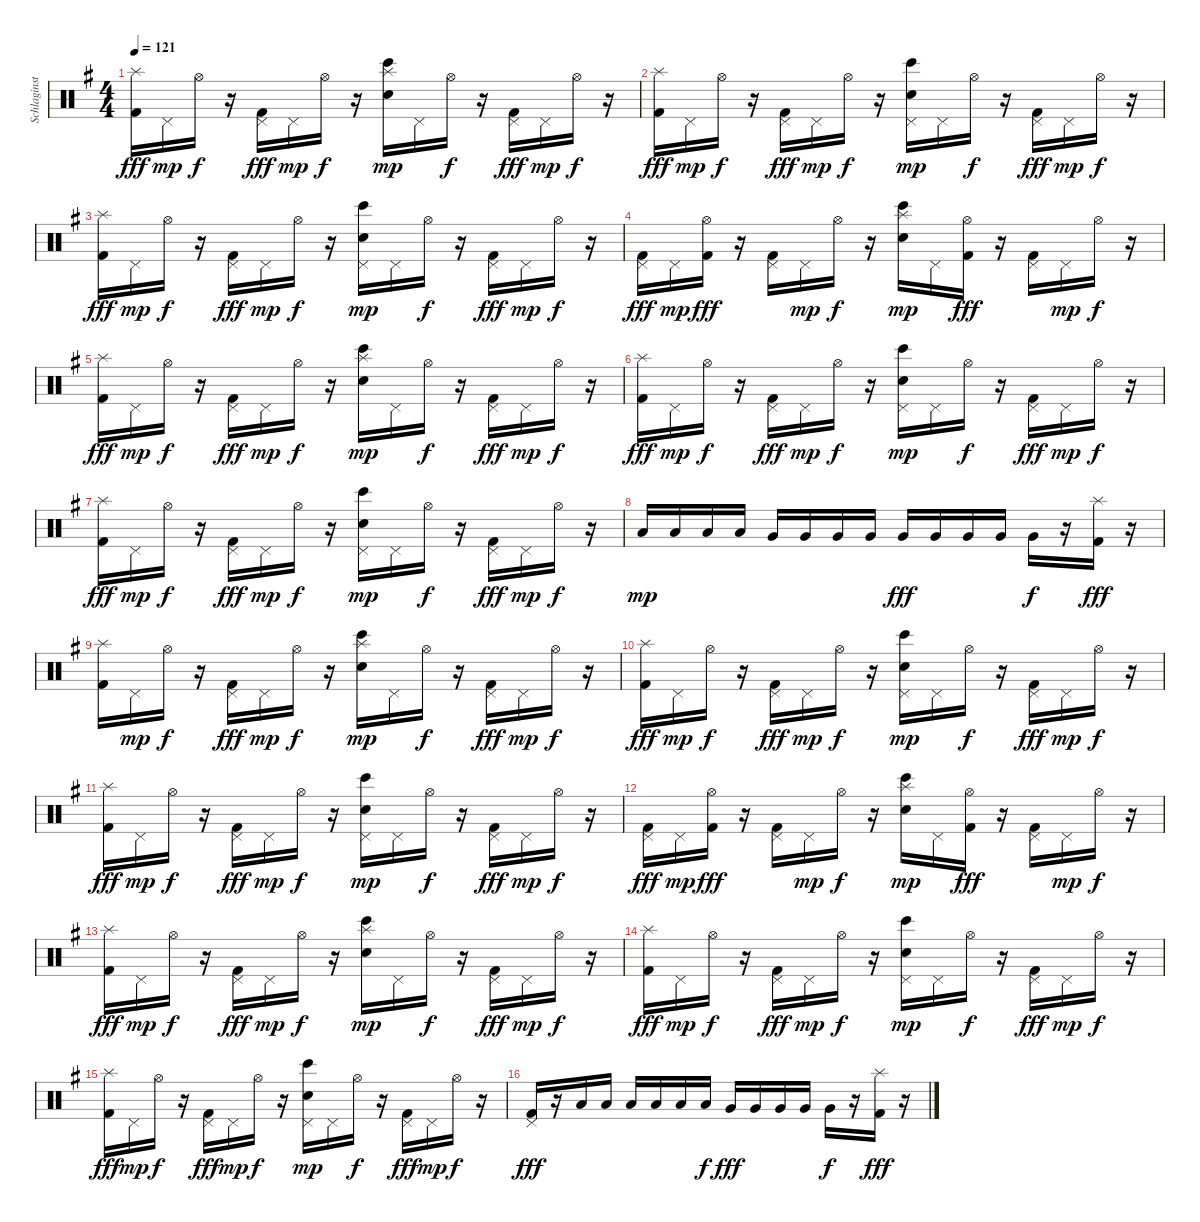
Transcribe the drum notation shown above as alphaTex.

\track ("Schlaginstrumente - Auswahl" "Schlaginst") {instrument percussion}
\staff {score}
\articulation defaults
\ts (4 4)
\tempo 121
\clef neutral
\ks g
("Splash (hit)" "Kick (hit) 2").16{dy fff} "Pedal Hi-Hat (hit)".16{dy mp} "Hi-Hat (open)".16{dy f} r.16 ("Pedal Hi-Hat (hit)" "Kick (hit) 2").16{dy fff} "Pedal Hi-Hat (hit)".16{dy mp} "Hi-Hat (open)".16{dy f} r.16 ("Bongo High (hit)" "Splash (hit)" "Electric Snare (hit)").16{dy mp} "Pedal Hi-Hat (hit)".16 "Hi-Hat (open)".16{dy f} r.16 ("Pedal Hi-Hat (hit)" "Kick (hit) 2").16{dy fff} "Pedal Hi-Hat (hit)".16{dy mp} "Hi-Hat (open)".16{dy f} r.16 |
("Splash (hit)" "Kick (hit) 2").16{dy fff} "Pedal Hi-Hat (hit)".16{dy mp} "Hi-Hat (open)".16{dy f} r.16 ("Pedal Hi-Hat (hit)" "Kick (hit) 2").16{dy fff} "Pedal Hi-Hat (hit)".16{dy mp} "Hi-Hat (open)".16{dy f} r.16 ("Bongo High (hit)" "Pedal Hi-Hat (hit)" "Electric Snare (hit)").16{dy mp} "Pedal Hi-Hat (hit)".16 "Hi-Hat (open)".16{dy f} r.16 ("Pedal Hi-Hat (hit)" "Kick (hit) 2").16{dy fff} "Pedal Hi-Hat (hit)".16{dy mp} "Hi-Hat (open)".16{dy f} r.16 |
("Splash (hit)" "Kick (hit) 2").16{dy fff} "Pedal Hi-Hat (hit)".16{dy mp} "Hi-Hat (open)".16{dy f} r.16 ("Pedal Hi-Hat (hit)" "Kick (hit) 2").16{dy fff} "Pedal Hi-Hat (hit)".16{dy mp} "Hi-Hat (open)".16{dy f} r.16 ("Bongo High (hit)" "Pedal Hi-Hat (hit)" "Electric Snare (hit)").16{dy mp} "Pedal Hi-Hat (hit)".16 "Hi-Hat (open)".16{dy f} r.16 ("Pedal Hi-Hat (hit)" "Kick (hit) 2").16{dy fff} "Pedal Hi-Hat (hit)".16{dy mp} "Hi-Hat (open)".16{dy f} r.16 |
("Pedal Hi-Hat (hit)" "Kick (hit) 2").16{dy fff} "Pedal Hi-Hat (hit)".16{dy mp} ("Hi-Hat (open)" "Kick (hit) 2").16{dy fff} r.16 ("Pedal Hi-Hat (hit)" "Kick (hit) 2").16 "Pedal Hi-Hat (hit)".16{dy mp} "Hi-Hat (open)".16{dy f} r.16 ("Bongo High (hit)" "Splash (hit)" "Electric Snare (hit)").16{dy mp} "Pedal Hi-Hat (hit)".16 ("Hi-Hat (open)" "Kick (hit) 2").16{dy fff} r.16 ("Pedal Hi-Hat (hit)" "Kick (hit) 2").16 "Pedal Hi-Hat (hit)".16{dy mp} "Hi-Hat (open)".16{dy f} r.16 |
("Splash (hit)" "Kick (hit) 2").16{dy fff} "Pedal Hi-Hat (hit)".16{dy mp} "Hi-Hat (open)".16{dy f} r.16 ("Pedal Hi-Hat (hit)" "Kick (hit) 2").16{dy fff} "Pedal Hi-Hat (hit)".16{dy mp} "Hi-Hat (open)".16{dy f} r.16 ("Bongo High (hit)" "Splash (hit)" "Electric Snare (hit)").16{dy mp} "Pedal Hi-Hat (hit)".16 "Hi-Hat (open)".16{dy f} r.16 ("Pedal Hi-Hat (hit)" "Kick (hit) 2").16{dy fff} "Pedal Hi-Hat (hit)".16{dy mp} "Hi-Hat (open)".16{dy f} r.16 |
("Splash (hit)" "Kick (hit) 2").16{dy fff} "Pedal Hi-Hat (hit)".16{dy mp} "Hi-Hat (open)".16{dy f} r.16 ("Pedal Hi-Hat (hit)" "Kick (hit) 2").16{dy fff} "Pedal Hi-Hat (hit)".16{dy mp} "Hi-Hat (open)".16{dy f} r.16 ("Bongo High (hit)" "Pedal Hi-Hat (hit)" "Electric Snare (hit)").16{dy mp} "Pedal Hi-Hat (hit)".16 "Hi-Hat (open)".16{dy f} r.16 ("Pedal Hi-Hat (hit)" "Kick (hit) 2").16{dy fff} "Pedal Hi-Hat (hit)".16{dy mp} "Hi-Hat (open)".16{dy f} r.16 |
("Splash (hit)" "Kick (hit) 2").16{dy fff} "Pedal Hi-Hat (hit)".16{dy mp} "Hi-Hat (open)".16{dy f} r.16 ("Pedal Hi-Hat (hit)" "Kick (hit) 2").16{dy fff} "Pedal Hi-Hat (hit)".16{dy mp} "Hi-Hat (open)".16{dy f} r.16 ("Bongo High (hit)" "Pedal Hi-Hat (hit)" "Electric Snare (hit)").16{dy mp} "Pedal Hi-Hat (hit)".16 "Hi-Hat (open)".16{dy f} r.16 ("Pedal Hi-Hat (hit)" "Kick (hit) 2").16{dy fff} "Pedal Hi-Hat (hit)".16{dy mp} "Hi-Hat (open)".16{dy f} r.16 |
"Low Tom (hit)".16{dy mp} "Low Tom (hit)".16 "Low Tom (hit)".16 "Low Tom (hit)".16 "Very Low Tom (hit)".16 "Very Low Tom (hit)".16 "Very Low Tom (hit)".16 "Very Low Tom (hit)".16 "Very Low Tom (hit)".16{dy fff} "Very Low Tom (hit)".16 "Very Low Tom (hit)".16 "Very Low Tom (hit)".16 "Very Low Tom (hit)".16{dy f} r.16 ("Splash (hit)" "Kick (hit) 2").16{dy fff} r.16 |
("Splash (hit)" "Kick (hit) 2").16 "Pedal Hi-Hat (hit)".16{dy mp} "Hi-Hat (open)".16{dy f} r.16 ("Pedal Hi-Hat (hit)" "Kick (hit) 2").16{dy fff} "Pedal Hi-Hat (hit)".16{dy mp} "Hi-Hat (open)".16{dy f} r.16 ("Bongo High (hit)" "Splash (hit)" "Electric Snare (hit)").16{dy mp} "Pedal Hi-Hat (hit)".16 "Hi-Hat (open)".16{dy f} r.16 ("Pedal Hi-Hat (hit)" "Kick (hit) 2").16{dy fff} "Pedal Hi-Hat (hit)".16{dy mp} "Hi-Hat (open)".16{dy f} r.16 |
("Splash (hit)" "Kick (hit) 2").16{dy fff} "Pedal Hi-Hat (hit)".16{dy mp} "Hi-Hat (open)".16{dy f} r.16 ("Pedal Hi-Hat (hit)" "Kick (hit) 2").16{dy fff} "Pedal Hi-Hat (hit)".16{dy mp} "Hi-Hat (open)".16{dy f} r.16 ("Bongo High (hit)" "Pedal Hi-Hat (hit)" "Electric Snare (hit)").16{dy mp} "Pedal Hi-Hat (hit)".16 "Hi-Hat (open)".16{dy f} r.16 ("Pedal Hi-Hat (hit)" "Kick (hit) 2").16{dy fff} "Pedal Hi-Hat (hit)".16{dy mp} "Hi-Hat (open)".16{dy f} r.16 |
("Splash (hit)" "Kick (hit) 2").16{dy fff} "Pedal Hi-Hat (hit)".16{dy mp} "Hi-Hat (open)".16{dy f} r.16 ("Pedal Hi-Hat (hit)" "Kick (hit) 2").16{dy fff} "Pedal Hi-Hat (hit)".16{dy mp} "Hi-Hat (open)".16{dy f} r.16 ("Bongo High (hit)" "Pedal Hi-Hat (hit)" "Electric Snare (hit)").16{dy mp} "Pedal Hi-Hat (hit)".16 "Hi-Hat (open)".16{dy f} r.16 ("Pedal Hi-Hat (hit)" "Kick (hit) 2").16{dy fff} "Pedal Hi-Hat (hit)".16{dy mp} "Hi-Hat (open)".16{dy f} r.16 |
("Pedal Hi-Hat (hit)" "Kick (hit) 2").16{dy fff} "Pedal Hi-Hat (hit)".16{dy mp} ("Hi-Hat (open)" "Kick (hit) 2").16{dy fff} r.16 ("Pedal Hi-Hat (hit)" "Kick (hit) 2").16 "Pedal Hi-Hat (hit)".16{dy mp} "Hi-Hat (open)".16{dy f} r.16 ("Bongo High (hit)" "Splash (hit)" "Electric Snare (hit)").16{dy mp} "Pedal Hi-Hat (hit)".16 ("Hi-Hat (open)" "Kick (hit) 2").16{dy fff} r.16 ("Pedal Hi-Hat (hit)" "Kick (hit) 2").16 "Pedal Hi-Hat (hit)".16{dy mp} "Hi-Hat (open)".16{dy f} r.16 |
("Splash (hit)" "Kick (hit) 2").16{dy fff} "Pedal Hi-Hat (hit)".16{dy mp} "Hi-Hat (open)".16{dy f} r.16 ("Pedal Hi-Hat (hit)" "Kick (hit) 2").16{dy fff} "Pedal Hi-Hat (hit)".16{dy mp} "Hi-Hat (open)".16{dy f} r.16 ("Bongo High (hit)" "Splash (hit)" "Electric Snare (hit)").16{dy mp} "Pedal Hi-Hat (hit)".16 "Hi-Hat (open)".16{dy f} r.16 ("Pedal Hi-Hat (hit)" "Kick (hit) 2").16{dy fff} "Pedal Hi-Hat (hit)".16{dy mp} "Hi-Hat (open)".16{dy f} r.16 |
("Splash (hit)" "Kick (hit) 2").16{dy fff} "Pedal Hi-Hat (hit)".16{dy mp} "Hi-Hat (open)".16{dy f} r.16 ("Pedal Hi-Hat (hit)" "Kick (hit) 2").16{dy fff} "Pedal Hi-Hat (hit)".16{dy mp} "Hi-Hat (open)".16{dy f} r.16 ("Bongo High (hit)" "Pedal Hi-Hat (hit)" "Electric Snare (hit)").16{dy mp} "Pedal Hi-Hat (hit)".16 "Hi-Hat (open)".16{dy f} r.16 ("Pedal Hi-Hat (hit)" "Kick (hit) 2").16{dy fff} "Pedal Hi-Hat (hit)".16{dy mp} "Hi-Hat (open)".16{dy f} r.16 |
("Splash (hit)" "Kick (hit) 2").16{dy fff} "Pedal Hi-Hat (hit)".16{dy mp} "Hi-Hat (open)".16{dy f} r.16 ("Pedal Hi-Hat (hit)" "Kick (hit) 2").16{dy fff} "Pedal Hi-Hat (hit)".16{dy mp} "Hi-Hat (open)".16{dy f} r.16 ("Bongo High (hit)" "Pedal Hi-Hat (hit)" "Electric Snare (hit)").16{dy mp} "Pedal Hi-Hat (hit)".16 "Hi-Hat (open)".16{dy f} r.16 ("Pedal Hi-Hat (hit)" "Kick (hit) 2").16{dy fff} "Pedal Hi-Hat (hit)".16{dy mp} "Hi-Hat (open)".16{dy f} r.16 |
("Pedal Hi-Hat (hit)" "Kick (hit) 2").16{dy fff} r.16 "Low Tom (hit)".16 "Low Tom (hit)".16 "Low Tom (hit)".16 "Low Tom (hit)".16 "Low Tom (hit)".16 "Low Tom (hit)".16{dy f} "Very Low Tom (hit)".16{dy fff} "Very Low Tom (hit)".16 "Very Low Tom (hit)".16 "Very Low Tom (hit)".16 "Very Low Tom (hit)".16{dy f} r.16 ("Splash (hit)" "Kick (hit) 2").16{dy fff} r.16
